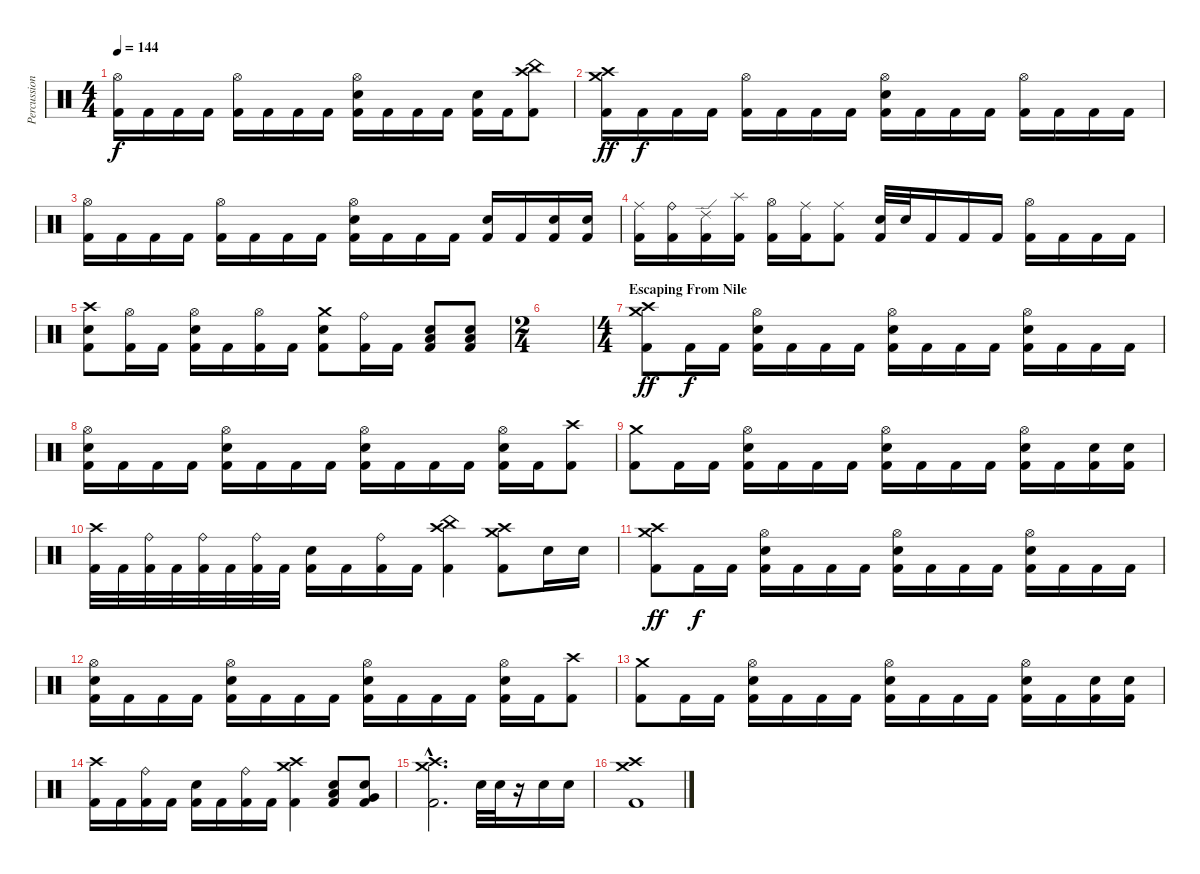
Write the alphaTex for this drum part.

\track ("Percussion" "Percussion") {instrument percussion}
\staff {score}
\articulation defaults
\ts (4 4)
\tempo 144
\clef neutral
\ks c
("Hi-Hat (open)" "Kick (hit) 2").16{dy f} "Kick (hit) 2".16 "Kick (hit) 2".16 "Kick (hit) 2".16 ("Hi-Hat (open)" "Kick (hit) 2").16 "Kick (hit) 2".16 "Kick (hit) 2".16 "Kick (hit) 2".16 ("Hi-Hat (open)" "Electric Snare (hit)" "Kick (hit) 2").16 "Kick (hit) 2".16 "Kick (hit) 2".16 "Kick (hit) 2".16 ("Electric Snare (hit)" "Kick (hit) 2").16 "Kick (hit) 2".16 ("Crash high (hit)" "China (hit)" "Kick (hit) 2").8 |
("Crash high (hit)" "Crash medium (hit)" "Kick (hit) 2").16{dy ff} "Kick (hit) 2".16{dy f} "Kick (hit) 2".16 "Kick (hit) 2".16 ("Hi-Hat (open)" "Kick (hit) 2").16 "Kick (hit) 2".16 "Kick (hit) 2".16 "Kick (hit) 2".16 ("Hi-Hat (open)" "Electric Snare (hit)" "Kick (hit) 2").16 "Kick (hit) 2".16 "Kick (hit) 2".16 "Kick (hit) 2".16 ("Hi-Hat (open)" "Kick (hit) 2").16 "Kick (hit) 2".16 "Kick (hit) 2".16 "Kick (hit) 2".16 |
("Hi-Hat (open)" "Kick (hit) 2").16 "Kick (hit) 2".16 "Kick (hit) 2".16 "Kick (hit) 2".16 ("Hi-Hat (open)" "Kick (hit) 2").16 "Kick (hit) 2".16 "Kick (hit) 2".16 "Kick (hit) 2".16 ("Hi-Hat (open)" "Electric Snare (hit)" "Kick (hit) 2").16 "Kick (hit) 2".16 "Kick (hit) 2".16 "Kick (hit) 2".16 ("Electric Snare (hit)" "Kick (hit) 2").16 "Kick (hit) 2".16 ("Electric Snare (hit)" "Kick (hit) 2").16 ("Electric Snare (hit)" "Kick (hit) 2").16 |
("Ride (middle)" "Kick (hit) 2").16 ("Ride (bell)" "Kick (hit) 2").16 ("Ride (edge) 2" "Kick (hit) 2").16 ("Splash (hit)" "Kick (hit) 2").16 ("Hi-Hat (open)" "Kick (hit) 2").16 ("Ride (middle)" "Kick (hit) 2").16 ("Ride (middle)" "Kick (hit) 2").8 ("Electric Snare (hit)" "Kick (hit) 2").32 "Electric Snare (hit)".32 "Kick (hit) 2".16 "Kick (hit) 2".16 "Kick (hit) 2".16 ("Hi-Hat (open)" "Kick (hit) 2").16 "Kick (hit) 2".16 "Kick (hit) 2".16 "Kick (hit) 2".16 |
("Crash high (hit)" "Electric Snare (hit)" "Kick (hit) 2").8 ("Hi-Hat (open)" "Kick (hit) 2").16 "Kick (hit) 2".16 ("Hi-Hat (open)" "Electric Snare (hit)" "Kick (hit) 2").16 "Kick (hit) 2".16 ("Hi-Hat (open)" "Kick (hit) 2").16 "Kick (hit) 2".16 ("Crash medium (hit)" "Electric Snare (hit)" "Kick (hit) 2").8 ("Ride (bell)" "Kick (hit) 2").16 "Kick (hit) 2".16 ("Low Tom (hit)" "Electric Snare (hit)" "Kick (hit) 2").8 ("Low Tom (hit)" "Electric Snare (hit)" "Kick (hit) 2").8 |
\ts (2 4)
|
\ts (4 4)
\section ("" "Escaping From Nile")
("Crash medium (hit)" "Crash high (hit)" "Kick (hit) 2").8{dy ff} "Kick (hit) 2".16{dy f} "Kick (hit) 2".16 ("Hi-Hat (open)" "Electric Snare (hit)" "Kick (hit) 2").16 "Kick (hit) 2".16 "Kick (hit) 2".16 "Kick (hit) 2".16 ("Hi-Hat (open)" "Electric Snare (hit)" "Kick (hit) 2").16 "Kick (hit) 2".16 "Kick (hit) 2".16 "Kick (hit) 2".16 ("Hi-Hat (open)" "Electric Snare (hit)" "Kick (hit) 2").16 "Kick (hit) 2".16 "Kick (hit) 2".16 "Kick (hit) 2".16 |
("Hi-Hat (open)" "Electric Snare (hit)" "Kick (hit) 2").16 "Kick (hit) 2".16 "Kick (hit) 2".16 "Kick (hit) 2".16 ("Hi-Hat (open)" "Electric Snare (hit)" "Kick (hit) 2").16 "Kick (hit) 2".16 "Kick (hit) 2".16 "Kick (hit) 2".16 ("Hi-Hat (open)" "Electric Snare (hit)" "Kick (hit) 2").16 "Kick (hit) 2".16 "Kick (hit) 2".16 "Kick (hit) 2".16 ("Hi-Hat (open)" "Electric Snare (hit)" "Kick (hit) 2").16 "Kick (hit) 2".16 ("Crash high (hit)" "Kick (hit) 2").8 |
("Crash medium (hit)" "Kick (hit) 2").8 "Kick (hit) 2".16 "Kick (hit) 2".16 ("Hi-Hat (open)" "Electric Snare (hit)" "Kick (hit) 2").16 "Kick (hit) 2".16 "Kick (hit) 2".16 "Kick (hit) 2".16 ("Hi-Hat (open)" "Electric Snare (hit)" "Kick (hit) 2").16 "Kick (hit) 2".16 "Kick (hit) 2".16 "Kick (hit) 2".16 ("Hi-Hat (open)" "Electric Snare (hit)" "Kick (hit) 2").16 "Kick (hit) 2".16 ("Electric Snare (hit)" "Kick (hit) 2").16 ("Electric Snare (hit)" "Kick (hit) 2").16 |
("Crash high (hit)" "Kick (hit) 2").32 "Kick (hit) 2".32 ("Ride (bell)" "Kick (hit) 2").32 "Kick (hit) 2".32 ("Ride (bell)" "Kick (hit) 2").32 "Kick (hit) 2".32 ("Ride (bell)" "Kick (hit) 2").32 "Kick (hit) 2".32 ("Electric Snare (hit)" "Kick (hit) 2").16 "Kick (hit) 2".16 ("Ride (bell)" "Kick (hit) 2").16 "Kick (hit) 2".16 ("China (hit)" "Crash high (hit)" "Kick (hit) 2").4 ("Crash medium (hit)" "Crash high (hit)" "Kick (hit) 2").8 "Electric Snare (hit)".16 "Electric Snare (hit)".16 |
("Crash medium (hit)" "Crash high (hit)" "Kick (hit) 2").8{dy ff} "Kick (hit) 2".16{dy f} "Kick (hit) 2".16 ("Hi-Hat (open)" "Electric Snare (hit)" "Kick (hit) 2").16 "Kick (hit) 2".16 "Kick (hit) 2".16 "Kick (hit) 2".16 ("Hi-Hat (open)" "Electric Snare (hit)" "Kick (hit) 2").16 "Kick (hit) 2".16 "Kick (hit) 2".16 "Kick (hit) 2".16 ("Hi-Hat (open)" "Electric Snare (hit)" "Kick (hit) 2").16 "Kick (hit) 2".16 "Kick (hit) 2".16 "Kick (hit) 2".16 |
("Hi-Hat (open)" "Electric Snare (hit)" "Kick (hit) 2").16 "Kick (hit) 2".16 "Kick (hit) 2".16 "Kick (hit) 2".16 ("Hi-Hat (open)" "Electric Snare (hit)" "Kick (hit) 2").16 "Kick (hit) 2".16 "Kick (hit) 2".16 "Kick (hit) 2".16 ("Hi-Hat (open)" "Electric Snare (hit)" "Kick (hit) 2").16 "Kick (hit) 2".16 "Kick (hit) 2".16 "Kick (hit) 2".16 ("Hi-Hat (open)" "Electric Snare (hit)" "Kick (hit) 2").16 "Kick (hit) 2".16 ("Crash high (hit)" "Kick (hit) 2").8 |
("Crash medium (hit)" "Kick (hit) 2").8 "Kick (hit) 2".16 "Kick (hit) 2".16 ("Hi-Hat (open)" "Electric Snare (hit)" "Kick (hit) 2").16 "Kick (hit) 2".16 "Kick (hit) 2".16 "Kick (hit) 2".16 ("Hi-Hat (open)" "Electric Snare (hit)" "Kick (hit) 2").16 "Kick (hit) 2".16 "Kick (hit) 2".16 "Kick (hit) 2".16 ("Hi-Hat (open)" "Electric Snare (hit)" "Kick (hit) 2").16 "Kick (hit) 2".16 ("Electric Snare (hit)" "Kick (hit) 2").16 ("Electric Snare (hit)" "Kick (hit) 2").16 |
("Crash high (hit)" "Kick (hit) 2").16 "Kick (hit) 2".16 ("Ride (bell)" "Kick (hit) 2").16 "Kick (hit) 2".16 ("Electric Snare (hit)" "Kick (hit) 2").16 "Kick (hit) 2".16 ("Ride (bell)" "Kick (hit) 2").16 "Kick (hit) 2".16 ("Crash medium (hit)" "Crash high (hit)" "Kick (hit) 2").4 ("Low Tom (hit)" "Electric Snare (hit)" "Kick (hit) 2").8 ("Very Low Tom (hit)" "Electric Snare (hit)" "Kick (hit) 2").8 |
("Crash medium (hit)"{hac} "Crash high (hit)"{hac} "Kick (hit) 2"{hac}).2{d} "Electric Snare (hit)".32 "Electric Snare (hit)".32 r.16 "Electric Snare (hit)".16 "Electric Snare (hit)".16 |
("Crash high (hit)" "Crash medium (hit)" "Kick (hit) 2").1
